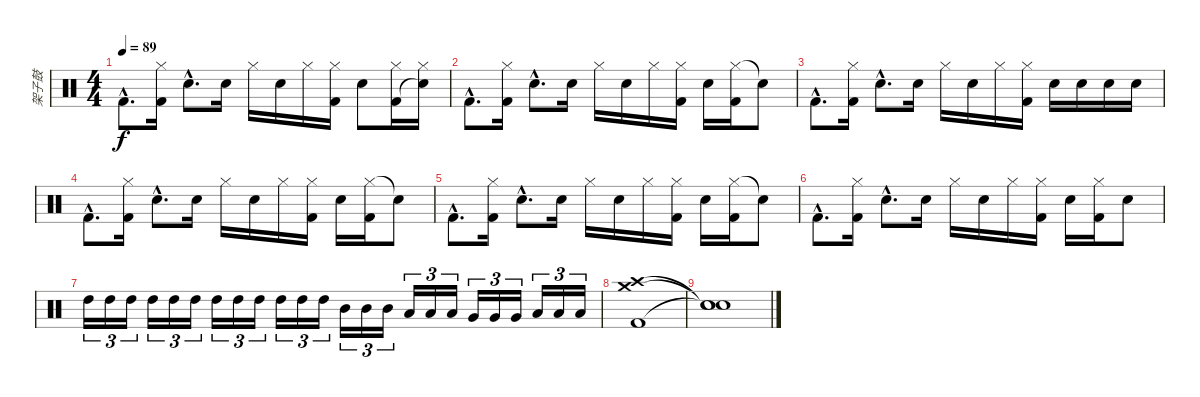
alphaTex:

\track ("架子鼓" "架子鼓") {instrument percussion}
\staff {score}
\articulation defaults
\ts (4 4)
\tempo 89
\clef neutral
\ks c "Kick (hit) 2"{hac}.8{d dy f}
("Hi-Hat (closed)" "Kick (hit) 2").16 "Snare (hit) 2"{hac}.8{d} "Snare (hit) 2".16 "Hi-Hat (closed)".16 "Snare (hit) 2".16 "Hi-Hat (closed)".16 ("Hi-Hat (closed)" "Kick (hit) 2").16 "Snare (hit) 2".8 ("Hi-Hat (closed)" "Kick (hit) 2").16 ("Hi-Hat (closed)" "Snare (hit)"{t}).16 |
"Kick (hit) 2"{hac}.8{d} ("Hi-Hat (closed)" "Kick (hit) 2").16 "Snare (hit) 2"{hac}.8{d} "Snare (hit) 2".16 "Hi-Hat (closed)".16 "Snare (hit) 2".16 "Hi-Hat (closed)".16 ("Hi-Hat (closed)" "Kick (hit) 2").16 "Snare (hit) 2".16 ("Hi-Hat (closed)" "Kick (hit) 2").16 "Snare (hit)"{t}.8 |
"Kick (hit) 2"{hac}.8{d} ("Hi-Hat (closed)" "Kick (hit) 2").16 "Snare (hit) 2"{hac}.8{d} "Snare (hit) 2".16 "Hi-Hat (closed)".16 "Snare (hit) 2".16 "Hi-Hat (closed)".16 ("Hi-Hat (closed)" "Kick (hit) 2").16 "Snare (hit) 2".16 "Snare (hit) 2".16 "Snare (hit) 2".16 "Snare (hit) 2".16 |
"Kick (hit) 2"{hac}.8{d} ("Hi-Hat (closed)" "Kick (hit) 2").16 "Snare (hit) 2"{hac}.8{d} "Snare (hit) 2".16 "Hi-Hat (closed)".16 "Snare (hit) 2".16 "Hi-Hat (closed)".16 ("Hi-Hat (closed)" "Kick (hit) 2").16 "Snare (hit) 2".16 ("Hi-Hat (closed)" "Kick (hit) 2").16 "Snare (hit)"{t}.8 |
"Kick (hit) 2"{hac}.8{d} ("Hi-Hat (closed)" "Kick (hit) 2").16 "Snare (hit) 2"{hac}.8{d} "Snare (hit) 2".16 "Hi-Hat (closed)".16 "Snare (hit) 2".16 "Hi-Hat (closed)".16 ("Hi-Hat (closed)" "Kick (hit) 2").16 "Snare (hit) 2".16 ("Hi-Hat (closed)" "Kick (hit) 2").16 "Snare (hit)"{t}.8 |
"Kick (hit) 2"{hac}.8{d} ("Hi-Hat (closed)" "Kick (hit) 2").16 "Snare (hit) 2"{hac}.8{d} "Snare (hit) 2".16 "Hi-Hat (closed)".16 "Snare (hit) 2".16 "Hi-Hat (closed)".16 ("Hi-Hat (closed)" "Kick (hit) 2").16 "Snare (hit) 2".16 ("Hi-Hat (closed)" "Kick (hit) 2").16 "Snare (hit) 2".8 |
"High Tom (hit)".16{tu (3 2)} "High Tom (hit)".16{tu (3 2)} "High Tom (hit)".16{tu (3 2)} "High Tom (hit)".16{tu (3 2)} "High Tom (hit)".16{tu (3 2)} "High Tom (hit)".16{tu (3 2)} "High Tom (hit)".16{tu (3 2)} "High Tom (hit)".16{tu (3 2)} "High Tom (hit)".16{tu (3 2)} "High Tom (hit)".16{tu (3 2)} "High Tom (hit)".16{tu (3 2)} "High Tom (hit)".16{tu (3 2)} "Mid Tom (hit)".16{tu (3 2)} "Mid Tom (hit)".16{tu (3 2)} "Mid Tom (hit)".16{tu (3 2)} "Low Tom (hit)".16{tu (3 2)} "Low Tom (hit)".16{tu (3 2)} "Low Tom (hit)".16{tu (3 2)} "Very Low Tom (hit)".16{tu (3 2)} "Very Low Tom (hit)".16{tu (3 2)} "Very Low Tom (hit)".16{tu (3 2)} "Low Floor Tom (hit)".16{tu (3 2)} "Low Floor Tom (hit)".16{tu (3 2)} "Low Floor Tom (hit)".16{tu (3 2)} |
("Crash high (hit)" "Crash medium (hit)" "Kick (hit) 2").1 |
("Snare (hit)"{t} "Snare (hit)"{t} "Snare (hit)"{t}).1
